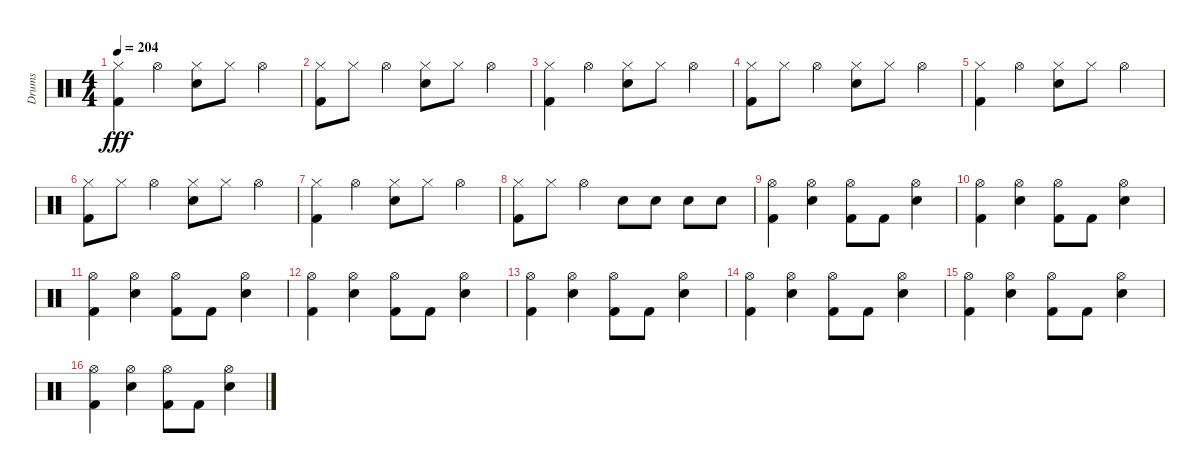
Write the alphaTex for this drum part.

\track ("Drums" "Drums") {instrument percussion}
\staff {score}
\articulation defaults
\ts (4 4)
\tempo 204
\clef neutral
\ks c
("Kick (hit) 2" "Hi-Hat (closed)").4{dy fff} "Hi-Hat (open)".4 ("Snare (hit) 2" "Hi-Hat (closed)").8 "Hi-Hat (closed)".8 "Hi-Hat (open)".4 |
("Kick (hit) 2" "Hi-Hat (closed)").8 "Hi-Hat (closed)".8 "Hi-Hat (open)".4 ("Snare (hit) 2" "Hi-Hat (closed)").8 "Hi-Hat (closed)".8 "Hi-Hat (open)".4 |
("Kick (hit) 2" "Hi-Hat (closed)").4 "Hi-Hat (open)".4 ("Snare (hit) 2" "Hi-Hat (closed)").8 "Hi-Hat (closed)".8 "Hi-Hat (open)".4 |
("Kick (hit) 2" "Hi-Hat (closed)").8 "Hi-Hat (closed)".8 "Hi-Hat (open)".4 ("Snare (hit) 2" "Hi-Hat (closed)").8 "Hi-Hat (closed)".8 "Hi-Hat (open)".4 |
("Kick (hit) 2" "Hi-Hat (closed)").4 "Hi-Hat (open)".4 ("Snare (hit) 2" "Hi-Hat (closed)").8 "Hi-Hat (closed)".8 "Hi-Hat (open)".4 |
("Kick (hit) 2" "Hi-Hat (closed)").8 "Hi-Hat (closed)".8 "Hi-Hat (open)".4 ("Snare (hit) 2" "Hi-Hat (closed)").8 "Hi-Hat (closed)".8 "Hi-Hat (open)".4 |
("Kick (hit) 2" "Hi-Hat (closed)").4 "Hi-Hat (open)".4 ("Snare (hit) 2" "Hi-Hat (closed)").8 "Hi-Hat (closed)".8 "Hi-Hat (open)".4 |
("Kick (hit) 2" "Hi-Hat (closed)").8 "Hi-Hat (closed)".8 "Hi-Hat (open)".4 "Snare (hit) 2".8 "Snare (hit) 2".8 "Snare (hit) 2".8 "Snare (hit) 2".8 |
("Hi-Hat (open)" "Kick (hit) 2").4 ("Hi-Hat (open)" "Snare (hit) 2").4 ("Hi-Hat (open)" "Kick (hit) 2").8 "Kick (hit) 2".8 ("Hi-Hat (open)" "Snare (hit) 2").4 |
("Hi-Hat (open)" "Kick (hit) 2").4 ("Hi-Hat (open)" "Snare (hit) 2").4 ("Hi-Hat (open)" "Kick (hit) 2").8 "Kick (hit) 2".8 ("Hi-Hat (open)" "Snare (hit) 2").4 |
("Hi-Hat (open)" "Kick (hit) 2").4 ("Hi-Hat (open)" "Snare (hit) 2").4 ("Hi-Hat (open)" "Kick (hit) 2").8 "Kick (hit) 2".8 ("Hi-Hat (open)" "Snare (hit) 2").4 |
("Hi-Hat (open)" "Kick (hit) 2").4 ("Hi-Hat (open)" "Snare (hit) 2").4 ("Hi-Hat (open)" "Kick (hit) 2").8 "Kick (hit) 2".8 ("Hi-Hat (open)" "Snare (hit) 2").4 |
("Hi-Hat (open)" "Kick (hit) 2").4 ("Hi-Hat (open)" "Snare (hit) 2").4 ("Hi-Hat (open)" "Kick (hit) 2").8 "Kick (hit) 2".8 ("Hi-Hat (open)" "Snare (hit) 2").4 |
("Hi-Hat (open)" "Kick (hit) 2").4 ("Hi-Hat (open)" "Snare (hit) 2").4 ("Hi-Hat (open)" "Kick (hit) 2").8 "Kick (hit) 2".8 ("Hi-Hat (open)" "Snare (hit) 2").4 |
("Hi-Hat (open)" "Kick (hit) 2").4 ("Hi-Hat (open)" "Snare (hit) 2").4 ("Hi-Hat (open)" "Kick (hit) 2").8 "Kick (hit) 2".8 ("Hi-Hat (open)" "Snare (hit) 2").4 |
("Hi-Hat (open)" "Kick (hit) 2").4 ("Hi-Hat (open)" "Snare (hit) 2").4 ("Hi-Hat (open)" "Kick (hit) 2").8 "Kick (hit) 2".8 ("Hi-Hat (open)" "Snare (hit) 2").4
